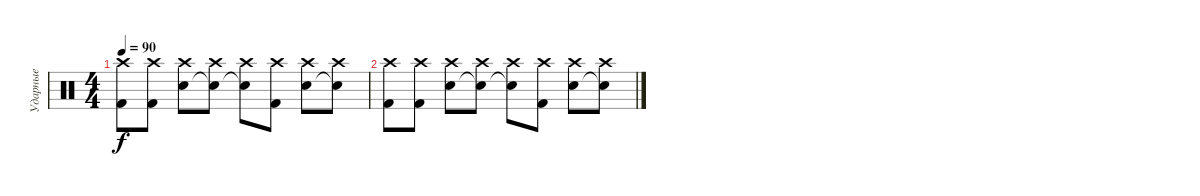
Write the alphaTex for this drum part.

\track ("Ударные" "Ударные") {instrument percussion}
\staff {score}
\articulation defaults
\ts (4 4)
\tempo 90
\clef neutral
\ks c
("Kick (hit) 2" "Crash high (hit)").8{dy f} ("Kick (hit) 2" "Crash high (hit)").8 ("Electric Snare (hit)" "Crash high (hit)").8 ("Electric Snare (hit)"{t} "Crash high (hit)").8 ("Electric Snare (hit)"{t} "Crash high (hit)").8 ("Kick (hit) 2" "Crash high (hit)").8 ("Electric Snare (hit)" "Crash high (hit)").8 ("Electric Snare (hit)"{t} "Crash high (hit)").8 |
("Kick (hit) 2" "Crash high (hit)").8 ("Kick (hit) 2" "Crash high (hit)").8 ("Electric Snare (hit)" "Crash high (hit)").8 ("Electric Snare (hit)"{t} "Crash high (hit)").8 ("Electric Snare (hit)"{t} "Crash high (hit)").8 ("Kick (hit) 2" "Crash high (hit)").8 ("Electric Snare (hit)" "Crash high (hit)").8 ("Electric Snare (hit)"{t} "Crash high (hit)").8
